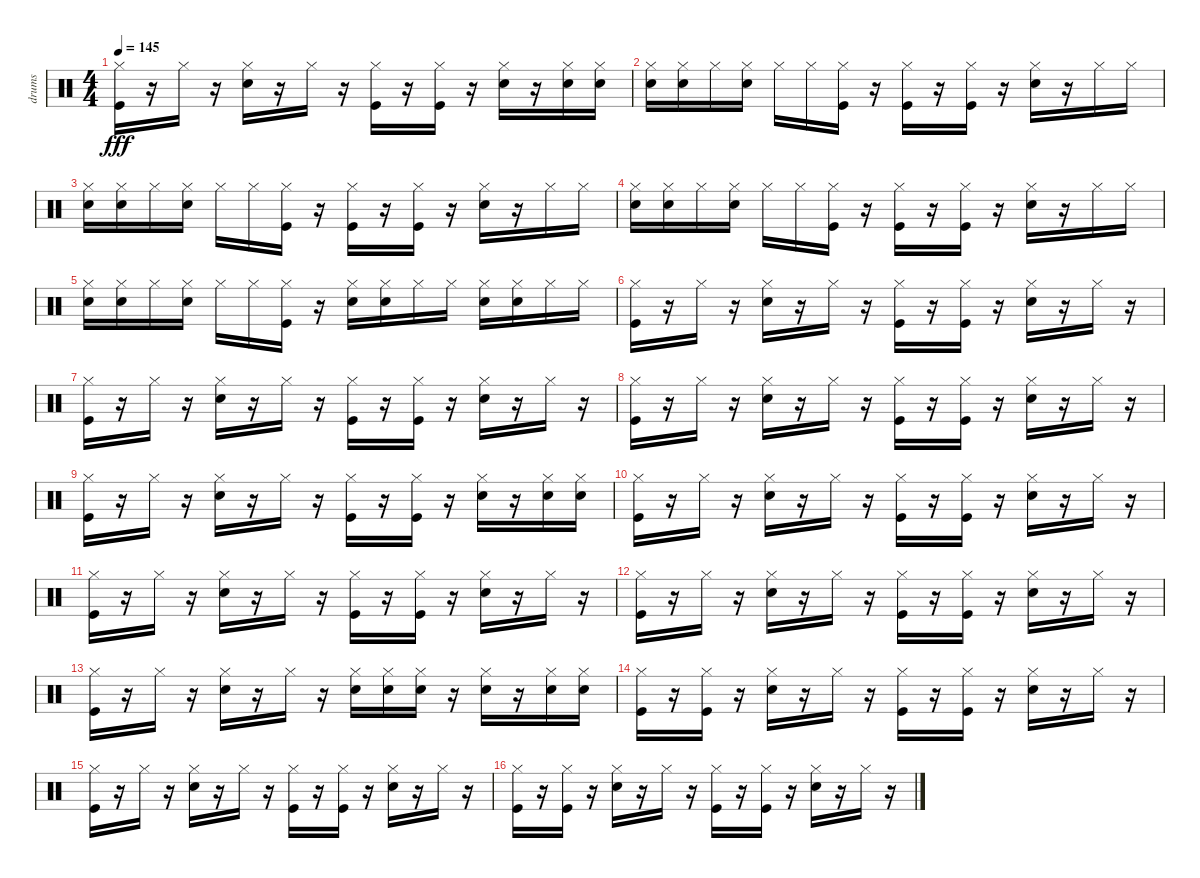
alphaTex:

\track ("drums" "drums") {instrument percussion}
\staff {score}
\articulation defaults
\ts (4 4)
\tempo 145
\clef neutral
\ks c
("Kick (hit)" "Hi-Hat (closed)").16{dy fff} r.16 "Hi-Hat (closed)".16 r.16 ("Snare (hit) 2" "Hi-Hat (closed)").16 r.16 "Hi-Hat (closed)".16 r.16 ("Kick (hit)" "Hi-Hat (closed)").16 r.16 ("Kick (hit)" "Hi-Hat (closed)").16 r.16 ("Snare (hit) 2" "Hi-Hat (closed)").16 r.16 ("Snare (hit) 2" "Hi-Hat (closed)").16 ("Snare (hit) 2" "Hi-Hat (closed)").16 |
("Snare (hit) 2" "Hi-Hat (closed)").16 ("Snare (hit) 2" "Hi-Hat (closed)").16 "Hi-Hat (closed)".16 ("Snare (hit) 2" "Hi-Hat (closed)").16 "Hi-Hat (closed)".16 "Hi-Hat (closed)".16 ("Kick (hit)" "Hi-Hat (closed)").16 r.16 ("Kick (hit)" "Hi-Hat (closed)").16 r.16 ("Kick (hit)" "Hi-Hat (closed)").16 r.16 ("Snare (hit) 2" "Hi-Hat (closed)").16 r.16 "Hi-Hat (closed)".16 "Hi-Hat (closed)".16 |
("Snare (hit) 2" "Hi-Hat (closed)").16 ("Snare (hit) 2" "Hi-Hat (closed)").16 "Hi-Hat (closed)".16 ("Snare (hit) 2" "Hi-Hat (closed)").16 "Hi-Hat (closed)".16 "Hi-Hat (closed)".16 ("Kick (hit)" "Hi-Hat (closed)").16 r.16 ("Kick (hit)" "Hi-Hat (closed)").16 r.16 ("Kick (hit)" "Hi-Hat (closed)").16 r.16 ("Snare (hit) 2" "Hi-Hat (closed)").16 r.16 "Hi-Hat (closed)".16 "Hi-Hat (closed)".16 |
("Snare (hit) 2" "Hi-Hat (closed)").16 ("Snare (hit) 2" "Hi-Hat (closed)").16 "Hi-Hat (closed)".16 ("Snare (hit) 2" "Hi-Hat (closed)").16 "Hi-Hat (closed)".16 "Hi-Hat (closed)".16 ("Kick (hit)" "Hi-Hat (closed)").16 r.16 ("Kick (hit)" "Hi-Hat (closed)").16 r.16 ("Kick (hit)" "Hi-Hat (closed)").16 r.16 ("Snare (hit) 2" "Hi-Hat (closed)").16 r.16 "Hi-Hat (closed)".16 "Hi-Hat (closed)".16 |
("Snare (hit) 2" "Hi-Hat (closed)").16 ("Snare (hit) 2" "Hi-Hat (closed)").16 "Hi-Hat (closed)".16 ("Snare (hit) 2" "Hi-Hat (closed)").16 "Hi-Hat (closed)".16 "Hi-Hat (closed)".16 ("Kick (hit)" "Hi-Hat (closed)").16 r.16 ("Snare (hit) 2" "Hi-Hat (closed)").16 ("Snare (hit) 2" "Hi-Hat (closed)").16 "Hi-Hat (closed)".16 "Hi-Hat (closed)".16 ("Snare (hit) 2" "Hi-Hat (closed)").16 ("Snare (hit) 2" "Hi-Hat (closed)").16 "Hi-Hat (closed)".16 "Hi-Hat (closed)".16 |
("Kick (hit)" "Hi-Hat (closed)").16 r.16 "Hi-Hat (closed)".16 r.16 ("Snare (hit) 2" "Hi-Hat (closed)").16 r.16 "Hi-Hat (closed)".16 r.16 ("Kick (hit)" "Hi-Hat (closed)").16 r.16 ("Kick (hit)" "Hi-Hat (closed)").16 r.16 ("Snare (hit) 2" "Hi-Hat (closed)").16 r.16 "Hi-Hat (closed)".16 r.16 |
("Kick (hit)" "Hi-Hat (closed)").16 r.16 "Hi-Hat (closed)".16 r.16 ("Snare (hit) 2" "Hi-Hat (closed)").16 r.16 "Hi-Hat (closed)".16 r.16 ("Kick (hit)" "Hi-Hat (closed)").16 r.16 ("Kick (hit)" "Hi-Hat (closed)").16 r.16 ("Snare (hit) 2" "Hi-Hat (closed)").16 r.16 "Hi-Hat (closed)".16 r.16 |
("Kick (hit)" "Hi-Hat (closed)").16 r.16 "Hi-Hat (closed)".16 r.16 ("Snare (hit) 2" "Hi-Hat (closed)").16 r.16 "Hi-Hat (closed)".16 r.16 ("Kick (hit)" "Hi-Hat (closed)").16 r.16 ("Kick (hit)" "Hi-Hat (closed)").16 r.16 ("Snare (hit) 2" "Hi-Hat (closed)").16 r.16 "Hi-Hat (closed)".16 r.16 |
("Kick (hit)" "Hi-Hat (closed)").16 r.16 "Hi-Hat (closed)".16 r.16 ("Snare (hit) 2" "Hi-Hat (closed)").16 r.16 "Hi-Hat (closed)".16 r.16 ("Kick (hit)" "Hi-Hat (closed)").16 r.16 ("Kick (hit)" "Hi-Hat (closed)").16 r.16 ("Snare (hit) 2" "Hi-Hat (closed)").16 r.16 ("Snare (hit) 2" "Hi-Hat (closed)").16 ("Snare (hit) 2" "Hi-Hat (closed)").16 |
("Kick (hit)" "Hi-Hat (closed)").16 r.16 "Hi-Hat (closed)".16 r.16 ("Snare (hit) 2" "Hi-Hat (closed)").16 r.16 "Hi-Hat (closed)".16 r.16 ("Kick (hit)" "Hi-Hat (closed)").16 r.16 ("Kick (hit)" "Hi-Hat (closed)").16 r.16 ("Snare (hit) 2" "Hi-Hat (closed)").16 r.16 "Hi-Hat (closed)".16 r.16 |
("Kick (hit)" "Hi-Hat (closed)").16 r.16 "Hi-Hat (closed)".16 r.16 ("Snare (hit) 2" "Hi-Hat (closed)").16 r.16 "Hi-Hat (closed)".16 r.16 ("Kick (hit)" "Hi-Hat (closed)").16 r.16 ("Kick (hit)" "Hi-Hat (closed)").16 r.16 ("Snare (hit) 2" "Hi-Hat (closed)").16 r.16 "Hi-Hat (closed)".16 r.16 |
("Kick (hit)" "Hi-Hat (closed)").16 r.16 "Hi-Hat (closed)".16 r.16 ("Snare (hit) 2" "Hi-Hat (closed)").16 r.16 "Hi-Hat (closed)".16 r.16 ("Kick (hit)" "Hi-Hat (closed)").16 r.16 ("Kick (hit)" "Hi-Hat (closed)").16 r.16 ("Snare (hit) 2" "Hi-Hat (closed)").16 r.16 "Hi-Hat (closed)".16 r.16 |
("Kick (hit)" "Hi-Hat (closed)").16 r.16 "Hi-Hat (closed)".16 r.16 ("Snare (hit) 2" "Hi-Hat (closed)").16 r.16 "Hi-Hat (closed)".16 r.16 ("Snare (hit) 2" "Hi-Hat (closed)").16 ("Snare (hit) 2" "Hi-Hat (closed)").16 ("Snare (hit) 2" "Hi-Hat (closed)").16 r.16 ("Snare (hit) 2" "Hi-Hat (closed)").16 r.16 ("Snare (hit) 2" "Hi-Hat (closed)").16 ("Snare (hit) 2" "Hi-Hat (closed)").16 |
("Kick (hit)" "Hi-Hat (closed)").16 r.16 ("Kick (hit)" "Hi-Hat (closed)").16 r.16 ("Snare (hit) 2" "Hi-Hat (closed)").16 r.16 "Hi-Hat (closed)".16 r.16 ("Kick (hit)" "Hi-Hat (closed)").16 r.16 ("Kick (hit)" "Hi-Hat (closed)").16 r.16 ("Snare (hit) 2" "Hi-Hat (closed)").16 r.16 "Hi-Hat (closed)".16 r.16 |
("Kick (hit)" "Hi-Hat (closed)").16 r.16 "Hi-Hat (closed)".16 r.16 ("Snare (hit) 2" "Hi-Hat (closed)").16 r.16 "Hi-Hat (closed)".16 r.16 ("Kick (hit)" "Hi-Hat (closed)").16 r.16 ("Kick (hit)" "Hi-Hat (closed)").16 r.16 ("Snare (hit) 2" "Hi-Hat (closed)").16 r.16 "Hi-Hat (closed)".16 r.16 |
("Kick (hit)" "Hi-Hat (closed)").16 r.16 ("Kick (hit)" "Hi-Hat (closed)").16 r.16 ("Snare (hit) 2" "Hi-Hat (closed)").16 r.16 "Hi-Hat (closed)".16 r.16 ("Kick (hit)" "Hi-Hat (closed)").16 r.16 ("Kick (hit)" "Hi-Hat (closed)").16 r.16 ("Snare (hit) 2" "Hi-Hat (closed)").16 r.16 "Hi-Hat (closed)".16 r.16
